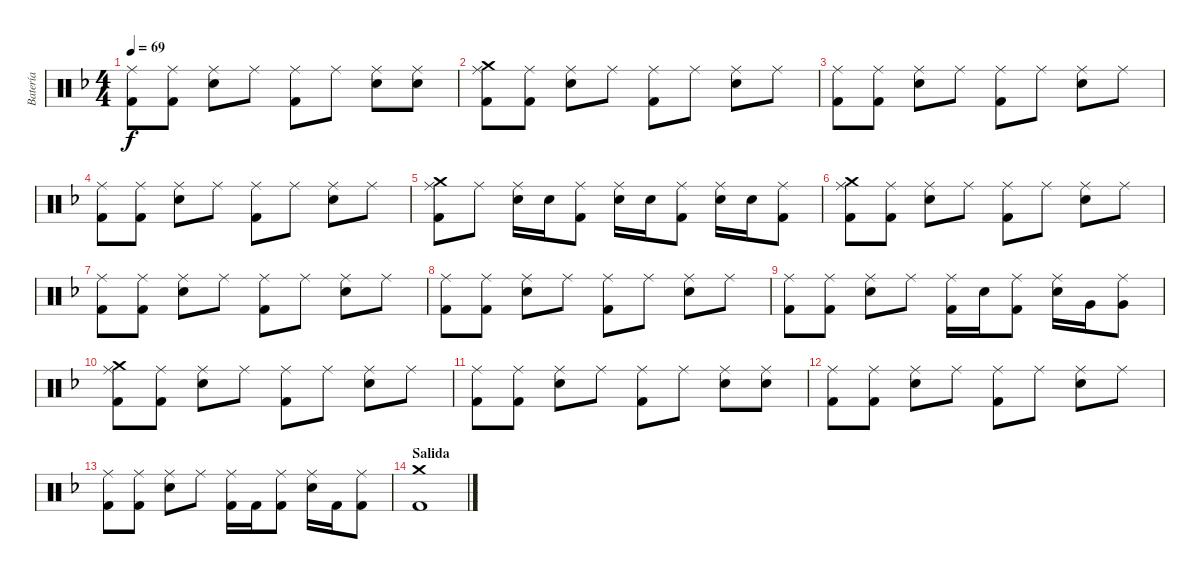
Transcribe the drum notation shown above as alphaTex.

\track ("Batería" "Batería") {instrument percussion}
\staff {score}
\articulation defaults
\ts (4 4)
\tempo 69
\clef neutral
\ks dminor
("Kick (hit) 2" "Ride (middle)").8{dy f} ("Kick (hit) 2" "Ride (middle)").8 ("Electric Snare (hit)" "Ride (middle)").8 "Ride (middle)".8 ("Kick (hit) 2" "Ride (middle)").8 "Ride (middle)".8 ("Electric Snare (hit)" "Ride (middle)").8 ("Electric Snare (hit)" "Ride (middle)").8 |
("Crash medium (hit)" "Kick (hit) 2" "Ride (middle)").8 ("Kick (hit) 2" "Ride (middle)").8 ("Electric Snare (hit)" "Ride (middle)").8 "Ride (middle)".8 ("Kick (hit) 2" "Ride (middle)").8 "Ride (middle)".8 ("Electric Snare (hit)" "Ride (middle)").8 "Ride (middle)".8 |
("Kick (hit) 2" "Ride (middle)").8 ("Kick (hit) 2" "Ride (middle)").8 ("Electric Snare (hit)" "Ride (middle)").8 "Ride (middle)".8 ("Kick (hit) 2" "Ride (middle)").8 "Ride (middle)".8 ("Electric Snare (hit)" "Ride (middle)").8 "Ride (middle)".8 |
("Kick (hit) 2" "Ride (middle)").8 ("Kick (hit) 2" "Ride (middle)").8 ("Electric Snare (hit)" "Ride (middle)").8 "Ride (middle)".8 ("Kick (hit) 2" "Ride (middle)").8 "Ride (middle)".8 ("Electric Snare (hit)" "Ride (middle)").8 "Ride (middle)".8 |
("Crash medium (hit)" "Kick (hit) 2" "Ride (middle)").8 "Ride (middle)".8 ("Electric Snare (hit)" "Ride (middle)").16 "Electric Snare (hit)".16 ("Kick (hit) 2" "Ride (middle)").8 ("Electric Snare (hit)" "Ride (middle)").16 "Electric Snare (hit)".16 ("Kick (hit) 2" "Ride (middle)").8 ("Electric Snare (hit)" "Ride (middle)").16 "Electric Snare (hit)".16 ("Kick (hit) 2" "Ride (middle)").8 |
("Crash medium (hit)" "Kick (hit) 2" "Ride (middle)").8 ("Kick (hit) 2" "Ride (middle)").8 ("Electric Snare (hit)" "Ride (middle)").8 "Ride (middle)".8 ("Kick (hit) 2" "Ride (middle)").8 "Ride (middle)".8 ("Electric Snare (hit)" "Ride (middle)").8 "Ride (middle)".8 |
("Kick (hit) 2" "Ride (middle)").8 ("Kick (hit) 2" "Ride (middle)").8 ("Electric Snare (hit)" "Ride (middle)").8 "Ride (middle)".8 ("Kick (hit) 2" "Ride (middle)").8 "Ride (middle)".8 ("Electric Snare (hit)" "Ride (middle)").8 "Ride (middle)".8 |
("Kick (hit) 2" "Ride (middle)").8 ("Kick (hit) 2" "Ride (middle)").8 ("Electric Snare (hit)" "Ride (middle)").8 "Ride (middle)".8 ("Kick (hit) 2" "Ride (middle)").8 "Ride (middle)".8 ("Electric Snare (hit)" "Ride (middle)").8 "Ride (middle)".8 |
("Kick (hit) 2" "Ride (middle)").8 ("Kick (hit) 2" "Ride (middle)").8 ("Electric Snare (hit)" "Ride (middle)").8 "Ride (middle)".8 ("Kick (hit) 2" "Ride (middle)").16 "Electric Snare (hit)".16 ("Kick (hit) 2" "Ride (middle)").8 ("Electric Snare (hit)" "Ride (middle)").16 "Very Low Tom (hit)".16 ("Very Low Tom (hit)" "Ride (middle)").8 |
("Crash medium (hit)" "Kick (hit) 2" "Ride (middle)").8 ("Kick (hit) 2" "Ride (middle)").8 ("Electric Snare (hit)" "Ride (middle)").8 "Ride (middle)".8 ("Kick (hit) 2" "Ride (middle)").8 "Ride (middle)".8 ("Electric Snare (hit)" "Ride (middle)").8 "Ride (middle)".8 |
("Kick (hit) 2" "Ride (middle)").8 ("Kick (hit) 2" "Ride (middle)").8 ("Electric Snare (hit)" "Ride (middle)").8 "Ride (middle)".8 ("Kick (hit) 2" "Ride (middle)").8 "Ride (middle)".8 ("Electric Snare (hit)" "Ride (middle)").8 ("Electric Snare (hit)" "Ride (middle)").8 |
("Kick (hit) 2" "Ride (middle)").8 ("Kick (hit) 2" "Ride (middle)").8 ("Electric Snare (hit)" "Ride (middle)").8 "Ride (middle)".8 ("Kick (hit) 2" "Ride (middle)").8 "Ride (middle)".8 ("Electric Snare (hit)" "Ride (middle)").8 "Ride (middle)".8 |
("Kick (hit) 2" "Ride (middle)").8 ("Kick (hit) 2" "Ride (middle)").8 ("Electric Snare (hit)" "Ride (middle)").8 "Ride (middle)".8 ("Kick (hit) 2" "Ride (middle)").16 "Kick (hit) 2".16 ("Kick (hit) 2" "Ride (middle)").8 ("Electric Snare (hit)" "Ride (middle)").16 "Kick (hit) 2".16 ("Kick (hit) 2" "Ride (middle)").8 |
\section ("" "Salida")
("Crash medium (hit)" "Kick (hit) 2").1
